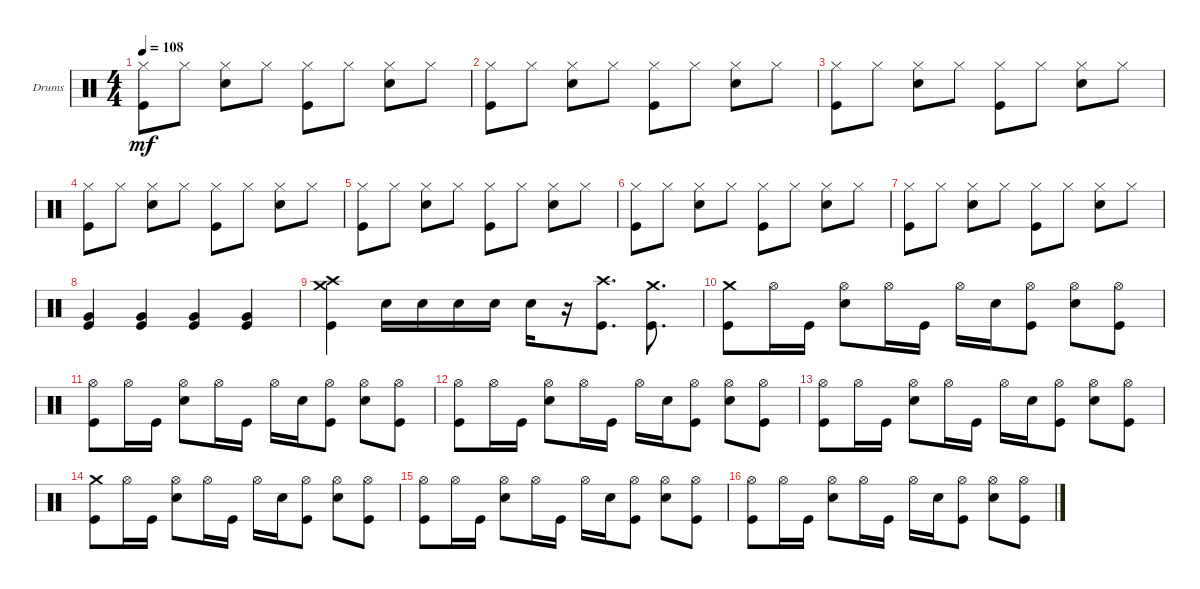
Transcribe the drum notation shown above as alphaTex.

\defaultSystemsLayout 4
\bracketExtendMode groupsimilarinstruments
\firstSystemTrackNameOrientation horizontal
\otherSystemsTrackNameOrientation horizontal
\track ("Drumkit" "Drums") {instrument percussion}
\staff {score}
\articulation defaults
\ts (4 4)
\tempo 108
\clef neutral
\ks c
("Hi-Hat (closed)" "Kick (hit)").8{dy mf} "Hi-Hat (closed)".8 ("Hi-Hat (closed)" "Snare (hit) 2").8 "Hi-Hat (closed)".8 ("Hi-Hat (closed)" "Kick (hit)").8 "Hi-Hat (closed)".8 ("Hi-Hat (closed)" "Snare (hit) 2").8 "Hi-Hat (closed)".8 |
("Hi-Hat (closed)" "Kick (hit)").8 "Hi-Hat (closed)".8 ("Hi-Hat (closed)" "Snare (hit) 2").8 "Hi-Hat (closed)".8 ("Hi-Hat (closed)" "Kick (hit)").8 "Hi-Hat (closed)".8 ("Hi-Hat (closed)" "Snare (hit) 2").8 "Hi-Hat (closed)".8 |
("Hi-Hat (closed)" "Kick (hit)").8 "Hi-Hat (closed)".8 ("Hi-Hat (closed)" "Snare (hit) 2").8 "Hi-Hat (closed)".8 ("Hi-Hat (closed)" "Kick (hit)").8 "Hi-Hat (closed)".8 ("Hi-Hat (closed)" "Snare (hit) 2").8 "Hi-Hat (closed)".8 |
("Hi-Hat (closed)" "Kick (hit)").8 "Hi-Hat (closed)".8 ("Hi-Hat (closed)" "Snare (hit) 2").8 "Hi-Hat (closed)".8 ("Hi-Hat (closed)" "Kick (hit)").8 "Hi-Hat (closed)".8 ("Hi-Hat (closed)" "Snare (hit) 2").8 "Hi-Hat (closed)".8 |
("Hi-Hat (closed)" "Kick (hit)").8 "Hi-Hat (closed)".8 ("Hi-Hat (closed)" "Snare (hit) 2").8 "Hi-Hat (closed)".8 ("Hi-Hat (closed)" "Kick (hit)").8 "Hi-Hat (closed)".8 ("Hi-Hat (closed)" "Snare (hit) 2").8 "Hi-Hat (closed)".8 |
("Hi-Hat (closed)" "Kick (hit)").8 "Hi-Hat (closed)".8 ("Hi-Hat (closed)" "Snare (hit) 2").8 "Hi-Hat (closed)".8 ("Hi-Hat (closed)" "Kick (hit)").8 "Hi-Hat (closed)".8 ("Hi-Hat (closed)" "Snare (hit) 2").8 "Hi-Hat (closed)".8 |
("Hi-Hat (closed)" "Kick (hit)").8 "Hi-Hat (closed)".8 ("Hi-Hat (closed)" "Snare (hit) 2").8 "Hi-Hat (closed)".8 ("Hi-Hat (closed)" "Kick (hit)").8 "Hi-Hat (closed)".8 ("Hi-Hat (closed)" "Snare (hit) 2").8 "Hi-Hat (closed)".8 |
("Kick (hit)" "Very Low Tom (hit)").4 ("Kick (hit)" "Very Low Tom (hit)").4 ("Kick (hit)" "Very Low Tom (hit)").4 ("Kick (hit)" "Very Low Tom (hit)").4 |
("Kick (hit)" "Crash medium (hit)" "Crash high (hit)").4 "Snare (hit) 2".16 "Snare (hit) 2".16 "Snare (hit) 2".16 "Snare (hit) 2".16 "Snare (hit) 2".16 r.16 ("Kick (hit)" "Crash high (hit)").8{d} ("Kick (hit)" "Crash medium (hit)").8{d} |
("Kick (hit)" "Crash medium (hit)").8 "Hi-Hat (open)".16 "Kick (hit)".16 ("Snare (hit) 2" "Hi-Hat (open)").8 "Hi-Hat (open)".16 "Kick (hit)".16 "Hi-Hat (open)".16 "Snare (hit) 2".16 ("Kick (hit)" "Hi-Hat (open)").8 ("Snare (hit) 2" "Hi-Hat (open)").8 ("Kick (hit)" "Hi-Hat (open)").8 |
("Kick (hit)" "Hi-Hat (open)").8 "Hi-Hat (open)".16 "Kick (hit)".16 ("Snare (hit) 2" "Hi-Hat (open)").8 "Hi-Hat (open)".16 "Kick (hit)".16 "Hi-Hat (open)".16 "Snare (hit) 2".16 ("Kick (hit)" "Hi-Hat (open)").8 ("Snare (hit) 2" "Hi-Hat (open)").8 ("Kick (hit)" "Hi-Hat (open)").8 |
("Kick (hit)" "Hi-Hat (open)").8 "Hi-Hat (open)".16 "Kick (hit)".16 ("Snare (hit) 2" "Hi-Hat (open)").8 "Hi-Hat (open)".16 "Kick (hit)".16 "Hi-Hat (open)".16 "Snare (hit) 2".16 ("Kick (hit)" "Hi-Hat (open)").8 ("Snare (hit) 2" "Hi-Hat (open)").8 ("Kick (hit)" "Hi-Hat (open)").8 |
("Kick (hit)" "Hi-Hat (open)").8 "Hi-Hat (open)".16 "Kick (hit)".16 ("Snare (hit) 2" "Hi-Hat (open)").8 "Hi-Hat (open)".16 "Kick (hit)".16 "Hi-Hat (open)".16 "Snare (hit) 2".16 ("Kick (hit)" "Hi-Hat (open)").8 ("Snare (hit) 2" "Hi-Hat (open)").8 ("Kick (hit)" "Hi-Hat (open)").8 |
("Kick (hit)" "Crash medium (hit)").8 "Hi-Hat (open)".16 "Kick (hit)".16 ("Snare (hit) 2" "Hi-Hat (open)").8 "Hi-Hat (open)".16 "Kick (hit)".16 "Hi-Hat (open)".16 "Snare (hit) 2".16 ("Kick (hit)" "Hi-Hat (open)").8 ("Snare (hit) 2" "Hi-Hat (open)").8 ("Kick (hit)" "Hi-Hat (open)").8 |
("Kick (hit)" "Hi-Hat (open)").8 "Hi-Hat (open)".16 "Kick (hit)".16 ("Snare (hit) 2" "Hi-Hat (open)").8 "Hi-Hat (open)".16 "Kick (hit)".16 "Hi-Hat (open)".16 "Snare (hit) 2".16 ("Kick (hit)" "Hi-Hat (open)").8 ("Snare (hit) 2" "Hi-Hat (open)").8 ("Kick (hit)" "Hi-Hat (open)").8 |
("Kick (hit)" "Hi-Hat (open)").8 "Hi-Hat (open)".16 "Kick (hit)".16 ("Snare (hit) 2" "Hi-Hat (open)").8 "Hi-Hat (open)".16 "Kick (hit)".16 "Hi-Hat (open)".16 "Snare (hit) 2".16 ("Kick (hit)" "Hi-Hat (open)").8 ("Snare (hit) 2" "Hi-Hat (open)").8 ("Kick (hit)" "Hi-Hat (open)").8
